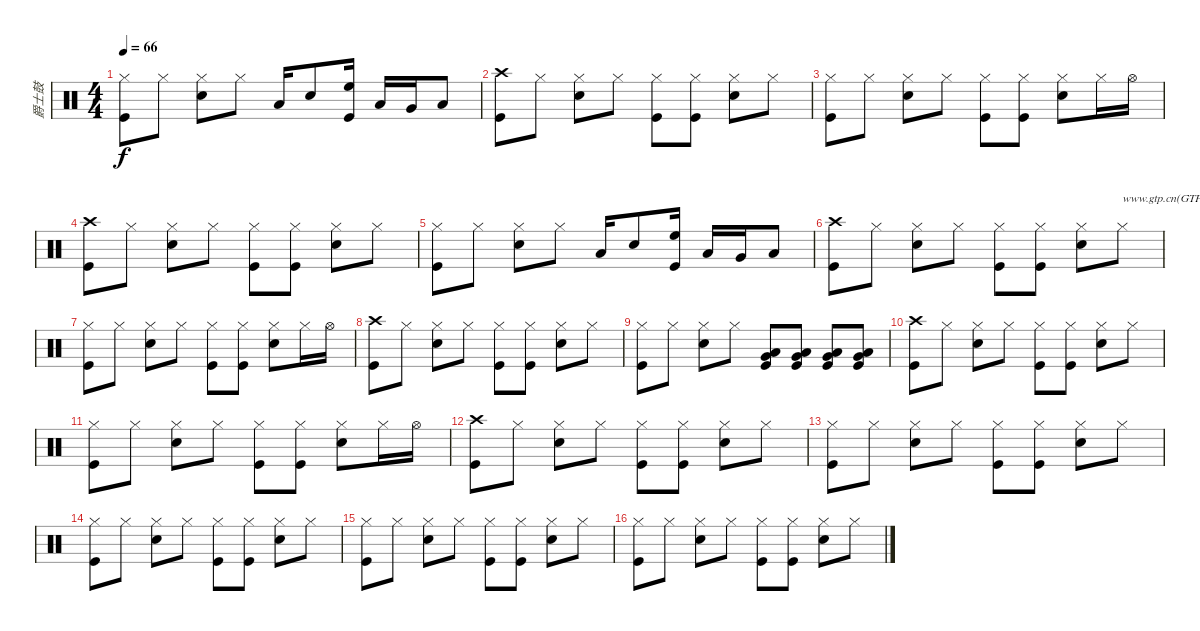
\track ("爵士鼓" "爵士鼓") {instrument percussion}
\staff {score}
\articulation defaults
\ts (4 4)
\tempo 66
\clef neutral
\ks c
("Hi-Hat (closed)" "Kick (hit)").8{dy f} "Hi-Hat (closed)".8 ("Hi-Hat (closed)" "Snare (hit) 2").8 "Hi-Hat (closed)".8 "Low Tom (hit)".16 "Electric Snare (hit)".8 ("High Floor Tom (hit)" "Kick (hit)").16 "Low Tom (hit)".16 "Very Low Tom (hit)".16 "Low Floor Tom (hit)".8 |
("Crash high (hit)" "Kick (hit)").8 "Hi-Hat (closed)".8 ("Hi-Hat (closed)" "Snare (hit) 2").8 "Hi-Hat (closed)".8 ("Hi-Hat (closed)" "Kick (hit)").8 ("Hi-Hat (closed)" "Kick (hit)").8 ("Hi-Hat (closed)" "Snare (hit) 2").8 "Hi-Hat (closed)".8 |
("Hi-Hat (closed)" "Kick (hit)").8 "Hi-Hat (closed)".8 ("Hi-Hat (closed)" "Snare (hit) 2").8 "Hi-Hat (closed)".8 ("Hi-Hat (closed)" "Kick (hit)").8 ("Hi-Hat (closed)" "Kick (hit)").8 ("Hi-Hat (closed)" "Snare (hit) 2").8 "Hi-Hat (closed)".16 "Hi-Hat (open)".16 |
("Crash high (hit)" "Kick (hit)").8 "Hi-Hat (closed)".8 ("Hi-Hat (closed)" "Snare (hit) 2").8 "Hi-Hat (closed)".8 ("Hi-Hat (closed)" "Kick (hit)").8 ("Hi-Hat (closed)" "Kick (hit)").8 ("Hi-Hat (closed)" "Snare (hit) 2").8 "Hi-Hat (closed)".8 |
("Hi-Hat (closed)" "Kick (hit)").8 "Hi-Hat (closed)".8 ("Hi-Hat (closed)" "Snare (hit) 2").8 "Hi-Hat (closed)".8 "Low Tom (hit)".16 "Electric Snare (hit)".8 ("High Floor Tom (hit)" "Kick (hit)").16 "Low Tom (hit)".16 "Very Low Tom (hit)".16 "Low Floor Tom (hit)".8 |
("Crash high (hit)" "Kick (hit)").8 "Hi-Hat (closed)".8 ("Hi-Hat (closed)" "Snare (hit) 2").8 "Hi-Hat (closed)".8 ("Hi-Hat (closed)" "Kick (hit)").8 ("Hi-Hat (closed)" "Kick (hit)").8 ("Hi-Hat (closed)" "Snare (hit) 2").8 "Hi-Hat (closed)".8{txt "www.gtp.cn(GTP中文网)您提供优秀的GTP"} |
("Hi-Hat (closed)" "Kick (hit)").8 "Hi-Hat (closed)".8 ("Hi-Hat (closed)" "Snare (hit) 2").8 "Hi-Hat (closed)".8 ("Hi-Hat (closed)" "Kick (hit)").8 ("Hi-Hat (closed)" "Kick (hit)").8 ("Hi-Hat (closed)" "Snare (hit) 2").8 "Hi-Hat (closed)".16 "Hi-Hat (open)".16 |
("Crash high (hit)" "Kick (hit)").8 "Hi-Hat (closed)".8 ("Hi-Hat (closed)" "Snare (hit) 2").8 "Hi-Hat (closed)".8 ("Hi-Hat (closed)" "Kick (hit)").8 ("Hi-Hat (closed)" "Kick (hit)").8 ("Hi-Hat (closed)" "Snare (hit) 2").8 "Hi-Hat (closed)".8 |
("Hi-Hat (closed)" "Kick (hit)").8 "Hi-Hat (closed)".8 ("Hi-Hat (closed)" "Snare (hit) 2").8 "Hi-Hat (closed)".8 ("Low Tom (hit)" "Very Low Tom (hit)" "Kick (hit)").8 ("Low Tom (hit)" "Very Low Tom (hit)" "Kick (hit)").8 ("Very Low Tom (hit)" "Low Floor Tom (hit)" "Kick (hit)").8 ("Very Low Tom (hit)" "Low Floor Tom (hit)" "Kick (hit)").8 |
("Crash high (hit)" "Kick (hit)").8 "Hi-Hat (closed)".8 ("Hi-Hat (closed)" "Snare (hit) 2").8 "Hi-Hat (closed)".8 ("Hi-Hat (closed)" "Kick (hit)").8 ("Hi-Hat (closed)" "Kick (hit)").8 ("Hi-Hat (closed)" "Snare (hit) 2").8 "Hi-Hat (closed)".8 |
("Hi-Hat (closed)" "Kick (hit)").8 "Hi-Hat (closed)".8 ("Hi-Hat (closed)" "Snare (hit) 2").8 "Hi-Hat (closed)".8 ("Hi-Hat (closed)" "Kick (hit)").8 ("Hi-Hat (closed)" "Kick (hit)").8 ("Hi-Hat (closed)" "Snare (hit) 2").8 "Hi-Hat (closed)".16 "Hi-Hat (open)".16 |
("Crash high (hit)" "Kick (hit)").8 "Hi-Hat (closed)".8 ("Hi-Hat (closed)" "Snare (hit) 2").8 "Hi-Hat (closed)".8 ("Hi-Hat (closed)" "Kick (hit)").8 ("Hi-Hat (closed)" "Kick (hit)").8 ("Hi-Hat (closed)" "Snare (hit) 2").8 "Hi-Hat (closed)".8 |
("Hi-Hat (closed)" "Kick (hit)").8 "Hi-Hat (closed)".8 ("Hi-Hat (closed)" "Snare (hit) 2").8 "Hi-Hat (closed)".8 ("Hi-Hat (closed)" "Kick (hit)").8 ("Hi-Hat (closed)" "Kick (hit)").8 ("Hi-Hat (closed)" "Snare (hit) 2").8 "Hi-Hat (closed)".8 |
("Hi-Hat (closed)" "Kick (hit)").8 "Hi-Hat (closed)".8 ("Hi-Hat (closed)" "Snare (hit) 2").8 "Hi-Hat (closed)".8 ("Hi-Hat (closed)" "Kick (hit)").8 ("Hi-Hat (closed)" "Kick (hit)").8 ("Hi-Hat (closed)" "Snare (hit) 2").8 "Hi-Hat (closed)".8 |
("Hi-Hat (closed)" "Kick (hit)").8 "Hi-Hat (closed)".8 ("Hi-Hat (closed)" "Snare (hit) 2").8 "Hi-Hat (closed)".8 ("Hi-Hat (closed)" "Kick (hit)").8 ("Hi-Hat (closed)" "Kick (hit)").8 ("Hi-Hat (closed)" "Snare (hit) 2").8 "Hi-Hat (closed)".8 |
("Hi-Hat (closed)" "Kick (hit)").8 "Hi-Hat (closed)".8 ("Hi-Hat (closed)" "Snare (hit) 2").8 "Hi-Hat (closed)".8 ("Hi-Hat (closed)" "Kick (hit)").8 ("Hi-Hat (closed)" "Kick (hit)").8 ("Hi-Hat (closed)" "Snare (hit) 2").8 "Hi-Hat (closed)".8
